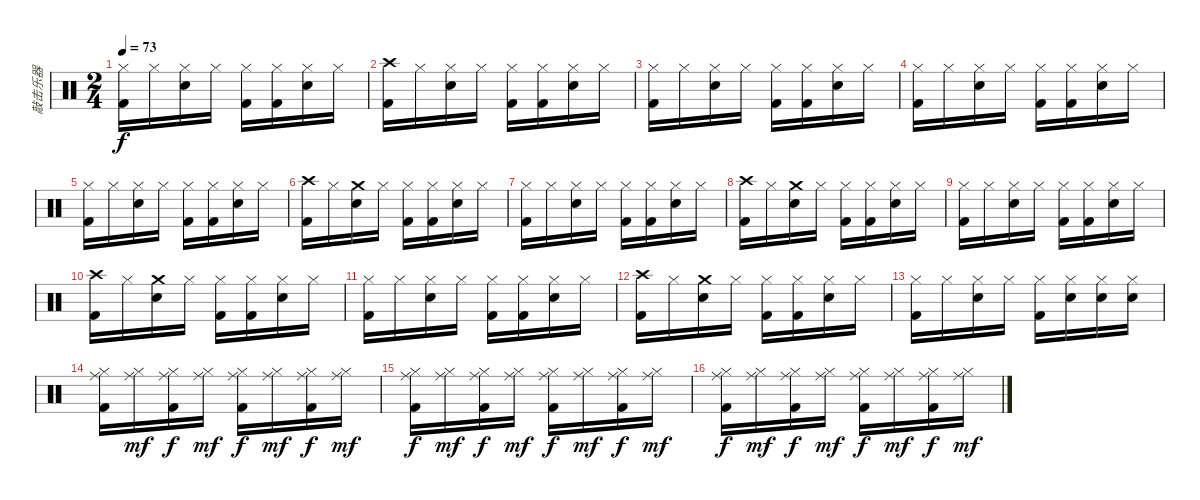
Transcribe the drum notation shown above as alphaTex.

\track ("敲击乐器" "敲击乐器") {instrument percussion}
\staff {score}
\articulation defaults
\ts (2 4)
\tempo 73
\clef neutral
\ks c
("Hi-Hat (closed)" "Kick (hit) 2").16{dy f} "Hi-Hat (closed)".16 ("Hi-Hat (closed)" "Electric Snare (hit)").16 "Hi-Hat (closed)".16 ("Hi-Hat (closed)" "Kick (hit) 2").16 ("Hi-Hat (closed)" "Kick (hit) 2").16 ("Hi-Hat (closed)" "Electric Snare (hit)").16 "Hi-Hat (closed)".16 |
("Crash high (hit)" "Kick (hit) 2").16 "Hi-Hat (closed)".16 ("Hi-Hat (closed)" "Electric Snare (hit)").16 "Hi-Hat (closed)".16 ("Hi-Hat (closed)" "Kick (hit) 2").16 ("Hi-Hat (closed)" "Kick (hit) 2").16 ("Hi-Hat (closed)" "Electric Snare (hit)").16 "Hi-Hat (closed)".16 |
("Hi-Hat (closed)" "Kick (hit) 2").16 "Hi-Hat (closed)".16 ("Hi-Hat (closed)" "Electric Snare (hit)").16 "Hi-Hat (closed)".16 ("Hi-Hat (closed)" "Kick (hit) 2").16 ("Hi-Hat (closed)" "Kick (hit) 2").16 ("Hi-Hat (closed)" "Electric Snare (hit)").16 "Hi-Hat (closed)".16 |
("Hi-Hat (closed)" "Kick (hit) 2").16 "Hi-Hat (closed)".16 ("Hi-Hat (closed)" "Electric Snare (hit)").16 "Hi-Hat (closed)".16 ("Hi-Hat (closed)" "Kick (hit) 2").16 ("Hi-Hat (closed)" "Kick (hit) 2").16 ("Hi-Hat (closed)" "Electric Snare (hit)").16 "Hi-Hat (closed)".16 |
("Hi-Hat (closed)" "Kick (hit) 2").16 "Hi-Hat (closed)".16 ("Hi-Hat (closed)" "Electric Snare (hit)").16 "Hi-Hat (closed)".16 ("Hi-Hat (closed)" "Kick (hit) 2").16 ("Hi-Hat (closed)" "Kick (hit) 2").16 ("Hi-Hat (closed)" "Electric Snare (hit)").16 "Hi-Hat (closed)".16 |
("Crash high (hit)" "Kick (hit) 2").16 "Hi-Hat (closed)".16 ("Crash medium (hit)" "Electric Snare (hit)").16 "Hi-Hat (closed)".16 ("Hi-Hat (closed)" "Kick (hit) 2").16 ("Hi-Hat (closed)" "Kick (hit) 2").16 ("Hi-Hat (closed)" "Electric Snare (hit)").16 "Hi-Hat (closed)".16 |
("Hi-Hat (closed)" "Kick (hit) 2").16 "Hi-Hat (closed)".16 ("Hi-Hat (closed)" "Electric Snare (hit)").16 "Hi-Hat (closed)".16 ("Hi-Hat (closed)" "Kick (hit) 2").16 ("Hi-Hat (closed)" "Kick (hit) 2").16 ("Hi-Hat (closed)" "Electric Snare (hit)").16 "Hi-Hat (closed)".16 |
("Crash high (hit)" "Kick (hit) 2").16 "Hi-Hat (closed)".16 ("Crash medium (hit)" "Electric Snare (hit)").16 "Hi-Hat (closed)".16 ("Hi-Hat (closed)" "Kick (hit) 2").16 ("Hi-Hat (closed)" "Kick (hit) 2").16 ("Hi-Hat (closed)" "Electric Snare (hit)").16 "Hi-Hat (closed)".16 |
("Hi-Hat (closed)" "Kick (hit) 2").16 "Hi-Hat (closed)".16 ("Hi-Hat (closed)" "Electric Snare (hit)").16 "Hi-Hat (closed)".16 ("Hi-Hat (closed)" "Kick (hit) 2").16 ("Hi-Hat (closed)" "Kick (hit) 2").16 ("Hi-Hat (closed)" "Electric Snare (hit)").16 "Hi-Hat (closed)".16 |
("Crash high (hit)" "Kick (hit) 2").16 "Hi-Hat (closed)".16 ("Crash medium (hit)" "Electric Snare (hit)").16 "Hi-Hat (closed)".16 ("Hi-Hat (closed)" "Kick (hit) 2").16 ("Hi-Hat (closed)" "Kick (hit) 2").16 ("Hi-Hat (closed)" "Electric Snare (hit)").16 "Hi-Hat (closed)".16 |
("Hi-Hat (closed)" "Kick (hit) 2").16 "Hi-Hat (closed)".16 ("Hi-Hat (closed)" "Electric Snare (hit)").16 "Hi-Hat (closed)".16 ("Hi-Hat (closed)" "Kick (hit) 2").16 ("Hi-Hat (closed)" "Kick (hit) 2").16 ("Hi-Hat (closed)" "Electric Snare (hit)").16 "Hi-Hat (closed)".16 |
("Crash high (hit)" "Kick (hit) 2").16 "Hi-Hat (closed)".16 ("Crash medium (hit)" "Electric Snare (hit)").16 "Hi-Hat (closed)".16 ("Hi-Hat (closed)" "Kick (hit) 2").16 ("Hi-Hat (closed)" "Kick (hit) 2").16 ("Hi-Hat (closed)" "Electric Snare (hit)").16 "Hi-Hat (closed)".16 |
("Hi-Hat (closed)" "Kick (hit) 2").16 "Hi-Hat (closed)".16 ("Hi-Hat (closed)" "Electric Snare (hit)").16 "Hi-Hat (closed)".16 ("Hi-Hat (closed)" "Kick (hit) 2").16 ("Hi-Hat (closed)" "Snare (hit) 2").16 ("Hi-Hat (closed)" "Snare (hit) 2").16 ("Hi-Hat (closed)" "Snare (hit) 2").16 |
("Hi-Hat (closed)" "Kick (hit) 2" "Ride (middle)").16 ("Hi-Hat (closed)" "Ride (middle)").16{dy mf} ("Hi-Hat (closed)" "Kick (hit) 2" "Ride (middle)").16{dy f} ("Hi-Hat (closed)" "Ride (middle)").16{dy mf} ("Hi-Hat (closed)" "Kick (hit) 2" "Ride (middle)").16{dy f} ("Hi-Hat (closed)" "Ride (middle)").16{dy mf} ("Hi-Hat (closed)" "Kick (hit) 2" "Ride (middle)").16{dy f} ("Hi-Hat (closed)" "Ride (middle)").16{dy mf} |
("Hi-Hat (closed)" "Kick (hit) 2" "Ride (middle)").16{dy f} ("Hi-Hat (closed)" "Ride (middle)").16{dy mf} ("Hi-Hat (closed)" "Kick (hit) 2" "Ride (middle)").16{dy f} ("Hi-Hat (closed)" "Ride (middle)").16{dy mf} ("Hi-Hat (closed)" "Kick (hit) 2" "Ride (middle)").16{dy f} ("Hi-Hat (closed)" "Ride (middle)").16{dy mf} ("Hi-Hat (closed)" "Kick (hit) 2" "Ride (middle)").16{dy f} ("Hi-Hat (closed)" "Ride (middle)").16{dy mf} |
("Hi-Hat (closed)" "Kick (hit) 2" "Ride (middle)").16{dy f} ("Hi-Hat (closed)" "Ride (middle)").16{dy mf} ("Hi-Hat (closed)" "Kick (hit) 2" "Ride (middle)").16{dy f} ("Hi-Hat (closed)" "Ride (middle)").16{dy mf} ("Hi-Hat (closed)" "Kick (hit) 2" "Ride (middle)").16{dy f} ("Hi-Hat (closed)" "Ride (middle)").16{dy mf} ("Hi-Hat (closed)" "Kick (hit) 2" "Ride (middle)").16{dy f} ("Hi-Hat (closed)" "Ride (middle)").16{dy mf}
